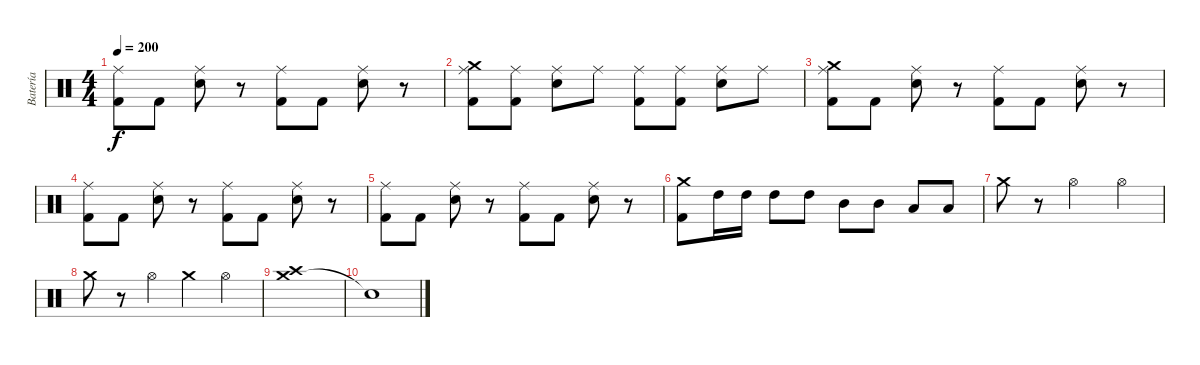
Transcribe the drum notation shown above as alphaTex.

\track ("Batería" "Batería") {instrument percussion bank 6}
\staff {score}
\articulation defaults
\ts (4 4)
\tempo 200
\clef neutral
\ks c
("Ride (middle)" "Kick (hit) 2").8{dy f} "Kick (hit) 2".8 ("Snare (hit) 2" "Ride (middle)").8 r.8 ("Ride (middle)" "Kick (hit) 2").8 "Kick (hit) 2".8 ("Snare (hit) 2" "Ride (middle)").8 r.8 |
("Crash medium (hit)" "Ride (middle)" "Kick (hit) 2").8 ("Ride (middle)" "Kick (hit) 2").8 ("Snare (hit) 2" "Ride (middle)").8 "Ride (middle)".8 ("Ride (middle)" "Kick (hit) 2").8 ("Ride (middle)" "Kick (hit) 2").8 ("Snare (hit) 2" "Ride (middle)").8 "Ride (middle)".8 |
("Crash medium (hit)" "Ride (middle)" "Kick (hit) 2").8 "Kick (hit) 2".8 ("Snare (hit) 2" "Ride (middle)").8 r.8 ("Ride (middle)" "Kick (hit) 2").8 "Kick (hit) 2".8 ("Snare (hit) 2" "Ride (middle)").8 r.8 |
("Ride (middle)" "Kick (hit) 2").8 "Kick (hit) 2".8 ("Snare (hit) 2" "Ride (middle)").8 r.8 ("Ride (middle)" "Kick (hit) 2").8 "Kick (hit) 2".8 ("Snare (hit) 2" "Ride (middle)").8 r.8 |
("Ride (middle)" "Kick (hit) 2").8 "Kick (hit) 2".8 ("Snare (hit) 2" "Ride (middle)").8 r.8 ("Ride (middle)" "Kick (hit) 2").8 "Kick (hit) 2".8 ("Snare (hit) 2" "Ride (middle)").8 r.8 |
("Crash medium (hit)" "Kick (hit) 2").8 "High Tom (hit)".16 "High Tom (hit)".16 "High Tom (hit)".8 "High Tom (hit)".8 "Mid Tom (hit)".8 "Mid Tom (hit)".8 "Low Tom (hit)".8 "Low Tom (hit)".8 |
"Crash medium (hit)".8 r.8 "Hi-Hat (open)".2 "Hi-Hat (open)".4 |
"Crash medium (hit)".8 r.8 "Hi-Hat (open)".4 "Crash medium (hit)".4 "Hi-Hat (open)".4 |
("Crash medium (hit)" "Crash high (hit)").1 |
"Snare (hit)"{t}.1{volume 0}
